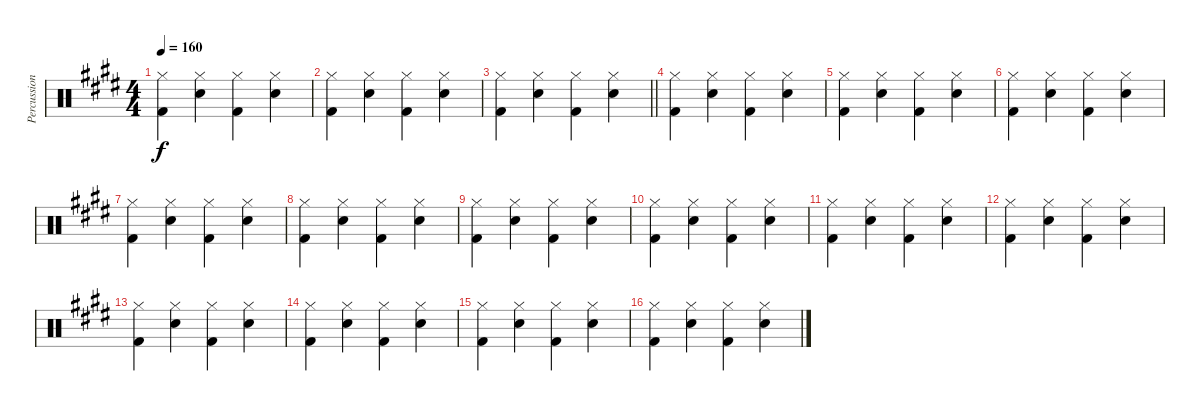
\track ("Percussion" "Percussion") {instrument percussion}
\staff {score}
\articulation defaults
\ts (4 4)
\tempo 160
\clef neutral
\ks e
("Hi-Hat (closed)" "Kick (hit) 2").4{dy f} ("Hi-Hat (closed)" "Snare (hit) 2").4 ("Hi-Hat (closed)" "Kick (hit) 2").4 ("Hi-Hat (closed)" "Snare (hit) 2").4 |
("Hi-Hat (closed)" "Kick (hit) 2").4 ("Hi-Hat (closed)" "Snare (hit) 2").4 ("Hi-Hat (closed)" "Kick (hit) 2").4 ("Hi-Hat (closed)" "Snare (hit) 2").4 |
\barLineRight lightlight
("Hi-Hat (closed)" "Kick (hit) 2").4 ("Hi-Hat (closed)" "Snare (hit) 2").4 ("Hi-Hat (closed)" "Kick (hit) 2").4 ("Hi-Hat (closed)" "Snare (hit) 2").4 |
("Hi-Hat (closed)" "Kick (hit) 2").4 ("Hi-Hat (closed)" "Snare (hit) 2").4 ("Hi-Hat (closed)" "Kick (hit) 2").4 ("Hi-Hat (closed)" "Snare (hit) 2").4 |
("Hi-Hat (closed)" "Kick (hit) 2").4 ("Hi-Hat (closed)" "Snare (hit) 2").4 ("Hi-Hat (closed)" "Kick (hit) 2").4 ("Hi-Hat (closed)" "Snare (hit) 2").4 |
("Hi-Hat (closed)" "Kick (hit) 2").4 ("Hi-Hat (closed)" "Snare (hit) 2").4 ("Hi-Hat (closed)" "Kick (hit) 2").4 ("Hi-Hat (closed)" "Snare (hit) 2").4 |
("Hi-Hat (closed)" "Kick (hit) 2").4 ("Hi-Hat (closed)" "Snare (hit) 2").4 ("Hi-Hat (closed)" "Kick (hit) 2").4 ("Hi-Hat (closed)" "Snare (hit) 2").4 |
("Hi-Hat (closed)" "Kick (hit) 2").4 ("Hi-Hat (closed)" "Snare (hit) 2").4 ("Hi-Hat (closed)" "Kick (hit) 2").4 ("Hi-Hat (closed)" "Snare (hit) 2").4 |
("Hi-Hat (closed)" "Kick (hit) 2").4 ("Hi-Hat (closed)" "Snare (hit) 2").4 ("Hi-Hat (closed)" "Kick (hit) 2").4 ("Hi-Hat (closed)" "Snare (hit) 2").4 |
("Hi-Hat (closed)" "Kick (hit) 2").4 ("Hi-Hat (closed)" "Snare (hit) 2").4 ("Hi-Hat (closed)" "Kick (hit) 2").4 ("Hi-Hat (closed)" "Snare (hit) 2").4 |
("Hi-Hat (closed)" "Kick (hit) 2").4 ("Hi-Hat (closed)" "Snare (hit) 2").4 ("Hi-Hat (closed)" "Kick (hit) 2").4 ("Hi-Hat (closed)" "Snare (hit) 2").4 |
("Hi-Hat (closed)" "Kick (hit) 2").4 ("Hi-Hat (closed)" "Snare (hit) 2").4 ("Hi-Hat (closed)" "Kick (hit) 2").4 ("Hi-Hat (closed)" "Snare (hit) 2").4 |
("Hi-Hat (closed)" "Kick (hit) 2").4 ("Hi-Hat (closed)" "Snare (hit) 2").4 ("Hi-Hat (closed)" "Kick (hit) 2").4 ("Hi-Hat (closed)" "Snare (hit) 2").4 |
("Hi-Hat (closed)" "Kick (hit) 2").4 ("Hi-Hat (closed)" "Snare (hit) 2").4 ("Hi-Hat (closed)" "Kick (hit) 2").4 ("Hi-Hat (closed)" "Snare (hit) 2").4 |
("Hi-Hat (closed)" "Kick (hit) 2").4 ("Hi-Hat (closed)" "Snare (hit) 2").4 ("Hi-Hat (closed)" "Kick (hit) 2").4 ("Hi-Hat (closed)" "Snare (hit) 2").4 |
("Hi-Hat (closed)" "Kick (hit) 2").4 ("Hi-Hat (closed)" "Snare (hit) 2").4 ("Hi-Hat (closed)" "Kick (hit) 2").4 ("Hi-Hat (closed)" "Snare (hit) 2").4
